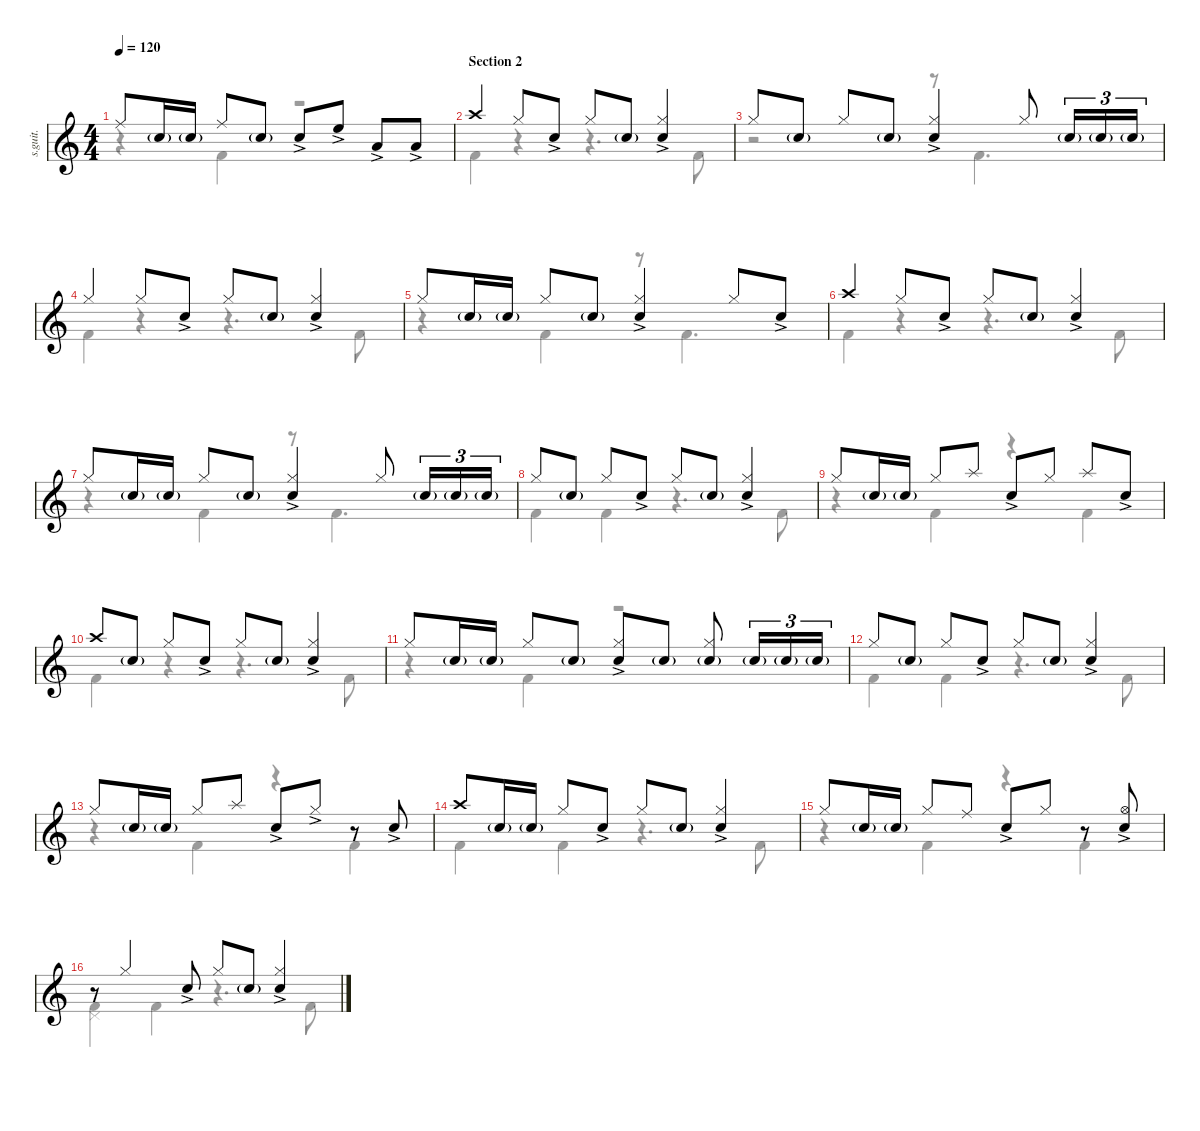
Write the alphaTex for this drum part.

\defaultSystemsLayout 4
\hideDynamics
\bracketExtendMode nobrackets
\track ("Matt Halpern" "s.guit.") {instrument percussion}
\staff {score}
\articulation defaults
\voice
\ts (4 4)
\tempo 120
\clef g2
\ks c "Ride (middle)".8{lyrics (0 "") lyrics (1 "") lyrics (2 "") lyrics (3 "") lyrics (4 "") dy mf} "Snare (hit) 2"{g}.16{lyrics (0 "") lyrics (1 "") lyrics (2 "") lyrics (3 "") lyrics (4 "")} "Snare (hit) 2"{g}.16{lyrics (0 "") lyrics (1 "") lyrics (2 "") lyrics (3 "") lyrics (4 "")} "Ride (middle)".8{lyrics (0 "") lyrics (1 "") lyrics (2 "") lyrics (3 "") lyrics (4 "")} "Snare (hit) 2"{g}.8{lyrics (0 "") lyrics (1 "") lyrics (2 "") lyrics (3 "") lyrics (4 "")} "Snare (hit) 2"{ac}.8{lyrics (0 "") lyrics (1 "") lyrics (2 "") lyrics (3 "") lyrics (4 "")} "High Floor Tom (hit)"{ac}.8{lyrics (0 "") lyrics (1 "") lyrics (2 "") lyrics (3 "") lyrics (4 "")} "Low Tom (hit)"{ac}.8{lyrics (0 "") lyrics (1 "") lyrics (2 "") lyrics (3 "") lyrics (4 "")} "Low Tom (hit)"{ac}.8{lyrics (0 "") lyrics (1 "") lyrics (2 "") lyrics (3 "") lyrics (4 "")}
|
\section ("" "Section 2")
"Crash high (hit)".4{lyrics (0 "") lyrics (1 "") lyrics (2 "") lyrics (3 "") lyrics (4 "")} "Hi-Hat (closed)".8{lyrics (0 "") lyrics (1 "") lyrics (2 "") lyrics (3 "") lyrics (4 "")} "Snare (hit) 2"{ac}.8{lyrics (0 "") lyrics (1 "") lyrics (2 "") lyrics (3 "") lyrics (4 "")} "Hi-Hat (closed)".8{lyrics (0 "") lyrics (1 "") lyrics (2 "") lyrics (3 "") lyrics (4 "")} "Snare (hit) 2"{g}.8{lyrics (0 "") lyrics (1 "") lyrics (2 "") lyrics (3 "") lyrics (4 "")} ("Snare (hit) 2"{ac} "Hi-Hat (closed)").4{lyrics (0 "") lyrics (1 "") lyrics (2 "") lyrics (3 "") lyrics (4 "")} |
"Hi-Hat (closed)".8{lyrics (0 "") lyrics (1 "") lyrics (2 "") lyrics (3 "") lyrics (4 "")} "Snare (hit) 2"{g}.8{lyrics (0 "") lyrics (1 "") lyrics (2 "") lyrics (3 "") lyrics (4 "")} "Hi-Hat (closed)".8{lyrics (0 "") lyrics (1 "") lyrics (2 "") lyrics (3 "") lyrics (4 "")} "Snare (hit) 2"{g}.8{lyrics (0 "") lyrics (1 "") lyrics (2 "") lyrics (3 "") lyrics (4 "")} ("Snare (hit) 2"{ac} "Hi-Hat (closed)").4{lyrics (0 "") lyrics (1 "") lyrics (2 "") lyrics (3 "") lyrics (4 "")} "Hi-Hat (closed)".8{lyrics (0 "") lyrics (1 "") lyrics (2 "") lyrics (3 "") lyrics (4 "")} "Snare (hit) 2"{g}.16{tu (3 2) lyrics (0 "") lyrics (1 "") lyrics (2 "") lyrics (3 "") lyrics (4 "")} "Snare (hit) 2"{g}.16{tu (3 2) lyrics (0 "") lyrics (1 "") lyrics (2 "") lyrics (3 "") lyrics (4 "")} "Snare (hit) 2"{g}.16{tu (3 2) lyrics (0 "") lyrics (1 "") lyrics (2 "") lyrics (3 "") lyrics (4 "")} |
"Hi-Hat (closed)".4{lyrics (0 "") lyrics (1 "") lyrics (2 "") lyrics (3 "") lyrics (4 "")} "Hi-Hat (closed)".8{lyrics (0 "") lyrics (1 "") lyrics (2 "") lyrics (3 "") lyrics (4 "")} "Snare (hit) 2"{ac}.8{lyrics (0 "") lyrics (1 "") lyrics (2 "") lyrics (3 "") lyrics (4 "")} "Hi-Hat (closed)".8{lyrics (0 "") lyrics (1 "") lyrics (2 "") lyrics (3 "") lyrics (4 "")} "Snare (hit) 2"{g}.8{lyrics (0 "") lyrics (1 "") lyrics (2 "") lyrics (3 "") lyrics (4 "")} ("Snare (hit) 2"{ac} "Hi-Hat (closed)").4{lyrics (0 "") lyrics (1 "") lyrics (2 "") lyrics (3 "") lyrics (4 "")} |
"Hi-Hat (closed)".8{lyrics (0 "") lyrics (1 "") lyrics (2 "") lyrics (3 "") lyrics (4 "")} "Snare (hit) 2"{g}.16{lyrics (0 "") lyrics (1 "") lyrics (2 "") lyrics (3 "") lyrics (4 "")} "Snare (hit) 2"{g}.16{lyrics (0 "") lyrics (1 "") lyrics (2 "") lyrics (3 "") lyrics (4 "")} "Hi-Hat (closed)".8{lyrics (0 "") lyrics (1 "") lyrics (2 "") lyrics (3 "") lyrics (4 "")} "Snare (hit) 2"{g}.8{lyrics (0 "") lyrics (1 "") lyrics (2 "") lyrics (3 "") lyrics (4 "")} ("Snare (hit) 2"{ac} "Hi-Hat (closed)").4{lyrics (0 "") lyrics (1 "") lyrics (2 "") lyrics (3 "") lyrics (4 "")} "Hi-Hat (closed)".8{lyrics (0 "") lyrics (1 "") lyrics (2 "") lyrics (3 "") lyrics (4 "")} "Snare (hit) 2"{ac}.8{lyrics (0 "") lyrics (1 "") lyrics (2 "") lyrics (3 "") lyrics (4 "")} |
"Crash high (hit)".4{lyrics (0 "") lyrics (1 "") lyrics (2 "") lyrics (3 "") lyrics (4 "")} "Hi-Hat (closed)".8{lyrics (0 "") lyrics (1 "") lyrics (2 "") lyrics (3 "") lyrics (4 "")} "Snare (hit) 2"{ac}.8{lyrics (0 "") lyrics (1 "") lyrics (2 "") lyrics (3 "") lyrics (4 "")} "Hi-Hat (closed)".8{lyrics (0 "") lyrics (1 "") lyrics (2 "") lyrics (3 "") lyrics (4 "")} "Snare (hit) 2"{g}.8{lyrics (0 "") lyrics (1 "") lyrics (2 "") lyrics (3 "") lyrics (4 "")} ("Snare (hit) 2"{ac} "Hi-Hat (closed)").4{lyrics (0 "") lyrics (1 "") lyrics (2 "") lyrics (3 "") lyrics (4 "")} |
"Hi-Hat (closed)".8{lyrics (0 "") lyrics (1 "") lyrics (2 "") lyrics (3 "") lyrics (4 "")} "Snare (hit) 2"{g}.16{lyrics (0 "") lyrics (1 "") lyrics (2 "") lyrics (3 "") lyrics (4 "")} "Snare (hit) 2"{g}.16{lyrics (0 "") lyrics (1 "") lyrics (2 "") lyrics (3 "") lyrics (4 "")} "Hi-Hat (closed)".8{lyrics (0 "") lyrics (1 "") lyrics (2 "") lyrics (3 "") lyrics (4 "")} "Snare (hit) 2"{g}.8{lyrics (0 "") lyrics (1 "") lyrics (2 "") lyrics (3 "") lyrics (4 "")} ("Snare (hit) 2"{ac} "Hi-Hat (closed)").4{lyrics (0 "") lyrics (1 "") lyrics (2 "") lyrics (3 "") lyrics (4 "")} "Hi-Hat (closed)".8{lyrics (0 "") lyrics (1 "") lyrics (2 "") lyrics (3 "") lyrics (4 "")} "Snare (hit) 2"{g}.16{tu (3 2) lyrics (0 "") lyrics (1 "") lyrics (2 "") lyrics (3 "") lyrics (4 "")} "Snare (hit) 2"{g}.16{tu (3 2) lyrics (0 "") lyrics (1 "") lyrics (2 "") lyrics (3 "") lyrics (4 "")} "Snare (hit) 2"{g}.16{tu (3 2) lyrics (0 "") lyrics (1 "") lyrics (2 "") lyrics (3 "") lyrics (4 "")} |
"Hi-Hat (closed)".8{lyrics (0 "") lyrics (1 "") lyrics (2 "") lyrics (3 "") lyrics (4 "")} "Snare (hit) 2"{g}.8{lyrics (0 "") lyrics (1 "") lyrics (2 "") lyrics (3 "") lyrics (4 "")} "Hi-Hat (closed)".8{lyrics (0 "") lyrics (1 "") lyrics (2 "") lyrics (3 "") lyrics (4 "")} "Snare (hit) 2"{ac}.8{lyrics (0 "") lyrics (1 "") lyrics (2 "") lyrics (3 "") lyrics (4 "")} "Hi-Hat (closed)".8{lyrics (0 "") lyrics (1 "") lyrics (2 "") lyrics (3 "") lyrics (4 "")} "Snare (hit) 2"{g}.8{lyrics (0 "") lyrics (1 "") lyrics (2 "") lyrics (3 "") lyrics (4 "")} ("Snare (hit) 2"{ac} "Hi-Hat (closed)").4{lyrics (0 "") lyrics (1 "") lyrics (2 "") lyrics (3 "") lyrics (4 "")} |
"Hi-Hat (closed)".8{lyrics (0 "") lyrics (1 "") lyrics (2 "") lyrics (3 "") lyrics (4 "")} "Snare (hit) 2"{g}.16{lyrics (0 "") lyrics (1 "") lyrics (2 "") lyrics (3 "") lyrics (4 "")} "Snare (hit) 2"{g}.16{lyrics (0 "") lyrics (1 "") lyrics (2 "") lyrics (3 "") lyrics (4 "")} "Hi-Hat (closed)".8{lyrics (0 "") lyrics (1 "") lyrics (2 "") lyrics (3 "") lyrics (4 "")} "Splash (hit)".8{lyrics (0 "") lyrics (1 "") lyrics (2 "") lyrics (3 "") lyrics (4 "")} "Snare (hit) 2"{ac}.8{lyrics (0 "") lyrics (1 "") lyrics (2 "") lyrics (3 "") lyrics (4 "")} "Hi-Hat (closed)".8{lyrics (0 "") lyrics (1 "") lyrics (2 "") lyrics (3 "") lyrics (4 "")} "Splash (hit)".8{lyrics (0 "") lyrics (1 "") lyrics (2 "") lyrics (3 "") lyrics (4 "")} "Snare (hit) 2"{ac}.8{lyrics (0 "") lyrics (1 "") lyrics (2 "") lyrics (3 "") lyrics (4 "")} |
"Crash high (hit)".8{lyrics (0 "") lyrics (1 "") lyrics (2 "") lyrics (3 "") lyrics (4 "")} "Snare (hit) 2"{g}.8{lyrics (0 "") lyrics (1 "") lyrics (2 "") lyrics (3 "") lyrics (4 "")} "Hi-Hat (closed)".8{lyrics (0 "") lyrics (1 "") lyrics (2 "") lyrics (3 "") lyrics (4 "")} "Snare (hit) 2"{ac}.8{lyrics (0 "") lyrics (1 "") lyrics (2 "") lyrics (3 "") lyrics (4 "")} "Hi-Hat (closed)".8{lyrics (0 "") lyrics (1 "") lyrics (2 "") lyrics (3 "") lyrics (4 "")} "Snare (hit) 2"{g}.8{lyrics (0 "") lyrics (1 "") lyrics (2 "") lyrics (3 "") lyrics (4 "")} ("Snare (hit) 2"{ac} "Hi-Hat (closed)").4{lyrics (0 "") lyrics (1 "") lyrics (2 "") lyrics (3 "") lyrics (4 "")} |
"Hi-Hat (closed)".8{lyrics (0 "") lyrics (1 "") lyrics (2 "") lyrics (3 "") lyrics (4 "")} "Snare (hit) 2"{g}.16{lyrics (0 "") lyrics (1 "") lyrics (2 "") lyrics (3 "") lyrics (4 "")} "Snare (hit) 2"{g}.16{lyrics (0 "") lyrics (1 "") lyrics (2 "") lyrics (3 "") lyrics (4 "")} "Hi-Hat (closed)".8{lyrics (0 "") lyrics (1 "") lyrics (2 "") lyrics (3 "") lyrics (4 "")} "Snare (hit) 2"{g}.8{lyrics (0 "") lyrics (1 "") lyrics (2 "") lyrics (3 "") lyrics (4 "")} ("Snare (hit) 2"{ac} "Hi-Hat (closed)").8{lyrics (0 "") lyrics (1 "") lyrics (2 "") lyrics (3 "") lyrics (4 "")} "Snare (hit) 2"{g}.8{lyrics (0 "") lyrics (1 "") lyrics (2 "") lyrics (3 "") lyrics (4 "")} ("Snare (hit) 2"{g} "Hi-Hat (closed)").8{lyrics (0 "") lyrics (1 "") lyrics (2 "") lyrics (3 "") lyrics (4 "")} "Snare (hit) 2"{g}.16{tu (3 2) lyrics (0 "") lyrics (1 "") lyrics (2 "") lyrics (3 "") lyrics (4 "")} "Snare (hit) 2"{g}.16{tu (3 2) lyrics (0 "") lyrics (1 "") lyrics (2 "") lyrics (3 "") lyrics (4 "")} "Snare (hit) 2"{g}.16{tu (3 2) lyrics (0 "") lyrics (1 "") lyrics (2 "") lyrics (3 "") lyrics (4 "")} |
"Hi-Hat (closed)".8{lyrics (0 "") lyrics (1 "") lyrics (2 "") lyrics (3 "") lyrics (4 "")} "Snare (hit) 2"{g}.8{lyrics (0 "") lyrics (1 "") lyrics (2 "") lyrics (3 "") lyrics (4 "")} "Hi-Hat (closed)".8{lyrics (0 "") lyrics (1 "") lyrics (2 "") lyrics (3 "") lyrics (4 "")} "Snare (hit) 2"{ac}.8{lyrics (0 "") lyrics (1 "") lyrics (2 "") lyrics (3 "") lyrics (4 "")} "Hi-Hat (closed)".8{lyrics (0 "") lyrics (1 "") lyrics (2 "") lyrics (3 "") lyrics (4 "")} "Snare (hit) 2"{g}.8{lyrics (0 "") lyrics (1 "") lyrics (2 "") lyrics (3 "") lyrics (4 "")} ("Snare (hit) 2"{ac} "Hi-Hat (closed)").4{lyrics (0 "") lyrics (1 "") lyrics (2 "") lyrics (3 "") lyrics (4 "")} |
"Hi-Hat (closed)".8{lyrics (0 "") lyrics (1 "") lyrics (2 "") lyrics (3 "") lyrics (4 "")} "Snare (hit) 2"{g}.16{lyrics (0 "") lyrics (1 "") lyrics (2 "") lyrics (3 "") lyrics (4 "")} "Snare (hit) 2"{g}.16{lyrics (0 "") lyrics (1 "") lyrics (2 "") lyrics (3 "") lyrics (4 "")} "Hi-Hat (closed)".8{lyrics (0 "") lyrics (1 "") lyrics (2 "") lyrics (3 "") lyrics (4 "")} "Splash (hit)".8{lyrics (0 "") lyrics (1 "") lyrics (2 "") lyrics (3 "") lyrics (4 "")} "Snare (hit) 2"{ac}.8{lyrics (0 "") lyrics (1 "") lyrics (2 "") lyrics (3 "") lyrics (4 "")} "Hi-Hat (closed)"{ac}.8{lyrics (0 "") lyrics (1 "") lyrics (2 "") lyrics (3 "") lyrics (4 "")} r.8 "Snare (hit) 2"{ac}.8{lyrics (0 "") lyrics (1 "") lyrics (2 "") lyrics (3 "") lyrics (4 "")} |
"Crash high (hit)".8{lyrics (0 "") lyrics (1 "") lyrics (2 "") lyrics (3 "") lyrics (4 "")} "Snare (hit) 2"{g}.16{lyrics (0 "") lyrics (1 "") lyrics (2 "") lyrics (3 "") lyrics (4 "")} "Snare (hit) 2"{g}.16{lyrics (0 "") lyrics (1 "") lyrics (2 "") lyrics (3 "") lyrics (4 "")} "Hi-Hat (closed)".8{lyrics (0 "") lyrics (1 "") lyrics (2 "") lyrics (3 "") lyrics (4 "")} "Snare (hit) 2"{ac}.8{lyrics (0 "") lyrics (1 "") lyrics (2 "") lyrics (3 "") lyrics (4 "")} "Hi-Hat (closed)".8{lyrics (0 "") lyrics (1 "") lyrics (2 "") lyrics (3 "") lyrics (4 "")} "Snare (hit) 2"{g}.8{lyrics (0 "") lyrics (1 "") lyrics (2 "") lyrics (3 "") lyrics (4 "")} ("Snare (hit) 2"{ac} "Hi-Hat (closed)").4{lyrics (0 "") lyrics (1 "") lyrics (2 "") lyrics (3 "") lyrics (4 "")} |
"Hi-Hat (closed)".8{lyrics (0 "") lyrics (1 "") lyrics (2 "") lyrics (3 "") lyrics (4 "")} "Snare (hit) 2"{g}.16{lyrics (0 "") lyrics (1 "") lyrics (2 "") lyrics (3 "") lyrics (4 "")} "Snare (hit) 2"{g}.16{lyrics (0 "") lyrics (1 "") lyrics (2 "") lyrics (3 "") lyrics (4 "")} "Hi-Hat (closed)".8{lyrics (0 "") lyrics (1 "") lyrics (2 "") lyrics (3 "") lyrics (4 "")} "Ride (middle)".8{lyrics (0 "") lyrics (1 "") lyrics (2 "") lyrics (3 "") lyrics (4 "")} "Snare (hit) 2"{ac}.8{lyrics (0 "") lyrics (1 "") lyrics (2 "") lyrics (3 "") lyrics (4 "")} "Hi-Hat (closed)".8{lyrics (0 "") lyrics (1 "") lyrics (2 "") lyrics (3 "") lyrics (4 "")} r.8 ("Snare (hit) 2"{ac} "Hi-Hat (open)").8{lyrics (0 "") lyrics (1 "") lyrics (2 "") lyrics (3 "") lyrics (4 "")} |
r.8 "Hi-Hat (closed)".4{lyrics (0 "") lyrics (1 "") lyrics (2 "") lyrics (3 "") lyrics (4 "")} "Snare (hit) 2"{ac}.8{lyrics (0 "") lyrics (1 "") lyrics (2 "") lyrics (3 "") lyrics (4 "")} "Hi-Hat (closed)".8{lyrics (0 "") lyrics (1 "") lyrics (2 "") lyrics (3 "") lyrics (4 "")} "Snare (hit) 2"{g}.8{lyrics (0 "") lyrics (1 "") lyrics (2 "") lyrics (3 "") lyrics (4 "")} ("Snare (hit) 2"{ac} "Hi-Hat (closed)").4{lyrics (0 "") lyrics (1 "") lyrics (2 "") lyrics (3 "") lyrics (4 "")}
\voice
\clef g2
\ottava regular
\simile none
\ks c
r.4{dy mf} "Kick (hit) 2".4{lyrics (0 "") lyrics (1 "") lyrics (2 "") lyrics (3 "") lyrics (4 "")} r.2 |
"Kick (hit) 2".4{lyrics (0 "") lyrics (1 "") lyrics (2 "") lyrics (3 "") lyrics (4 "")} r.4 r.4{d} "Kick (hit) 2".8{lyrics (0 "") lyrics (1 "") lyrics (2 "") lyrics (3 "") lyrics (4 "")} |
r.2 r.8 "Kick (hit) 2".4{d lyrics (0 "") lyrics (1 "") lyrics (2 "") lyrics (3 "") lyrics (4 "")} |
"Kick (hit) 2".4{lyrics (0 "") lyrics (1 "") lyrics (2 "") lyrics (3 "") lyrics (4 "")} r.4 r.4{d} "Kick (hit) 2".8{lyrics (0 "") lyrics (1 "") lyrics (2 "") lyrics (3 "") lyrics (4 "")} |
r.4 "Kick (hit) 2".4{lyrics (0 "") lyrics (1 "") lyrics (2 "") lyrics (3 "") lyrics (4 "")} r.8 "Kick (hit) 2".4{d lyrics (0 "") lyrics (1 "") lyrics (2 "") lyrics (3 "") lyrics (4 "")} |
"Kick (hit) 2".4{lyrics (0 "") lyrics (1 "") lyrics (2 "") lyrics (3 "") lyrics (4 "")} r.4 r.4{d} "Kick (hit) 2".8{lyrics (0 "") lyrics (1 "") lyrics (2 "") lyrics (3 "") lyrics (4 "")} |
r.4 "Kick (hit) 2".4{lyrics (0 "") lyrics (1 "") lyrics (2 "") lyrics (3 "") lyrics (4 "")} r.8 "Kick (hit) 2".4{d lyrics (0 "") lyrics (1 "") lyrics (2 "") lyrics (3 "") lyrics (4 "")} |
"Kick (hit) 2".4{lyrics (0 "") lyrics (1 "") lyrics (2 "") lyrics (3 "") lyrics (4 "")} "Kick (hit) 2".4{lyrics (0 "") lyrics (1 "") lyrics (2 "") lyrics (3 "") lyrics (4 "")} r.4{d} "Kick (hit) 2".8{lyrics (0 "") lyrics (1 "") lyrics (2 "") lyrics (3 "") lyrics (4 "")} |
r.4 "Kick (hit) 2".4{lyrics (0 "") lyrics (1 "") lyrics (2 "") lyrics (3 "") lyrics (4 "")} r.4 "Kick (hit) 2".4{lyrics (0 "") lyrics (1 "") lyrics (2 "") lyrics (3 "") lyrics (4 "")} |
"Kick (hit) 2".4{lyrics (0 "") lyrics (1 "") lyrics (2 "") lyrics (3 "") lyrics (4 "")} r.4 r.4{d} "Kick (hit) 2".8{lyrics (0 "") lyrics (1 "") lyrics (2 "") lyrics (3 "") lyrics (4 "")} |
r.4 "Kick (hit) 2".4{lyrics (0 "") lyrics (1 "") lyrics (2 "") lyrics (3 "") lyrics (4 "")} r.2 |
"Kick (hit) 2".4{lyrics (0 "") lyrics (1 "") lyrics (2 "") lyrics (3 "") lyrics (4 "")} "Kick (hit) 2".4{lyrics (0 "") lyrics (1 "") lyrics (2 "") lyrics (3 "") lyrics (4 "")} r.4{d} "Kick (hit) 2".8{lyrics (0 "") lyrics (1 "") lyrics (2 "") lyrics (3 "") lyrics (4 "")} |
r.4 "Kick (hit) 2".4{lyrics (0 "") lyrics (1 "") lyrics (2 "") lyrics (3 "") lyrics (4 "")} r.4 "Kick (hit) 2".4{lyrics (0 "") lyrics (1 "") lyrics (2 "") lyrics (3 "") lyrics (4 "")} |
"Kick (hit) 2".4{lyrics (0 "") lyrics (1 "") lyrics (2 "") lyrics (3 "") lyrics (4 "")} "Kick (hit) 2".4{lyrics (0 "") lyrics (1 "") lyrics (2 "") lyrics (3 "") lyrics (4 "")} r.4{d} "Kick (hit) 2".8{lyrics (0 "") lyrics (1 "") lyrics (2 "") lyrics (3 "") lyrics (4 "")} |
r.4 "Kick (hit) 2".4{lyrics (0 "") lyrics (1 "") lyrics (2 "") lyrics (3 "") lyrics (4 "")} r.4 "Kick (hit) 2".4{lyrics (0 "") lyrics (1 "") lyrics (2 "") lyrics (3 "") lyrics (4 "")} |
("Pedal Hi-Hat (hit)" "Kick (hit) 2").4{lyrics (0 "") lyrics (1 "") lyrics (2 "") lyrics (3 "") lyrics (4 "")} "Kick (hit) 2".4{lyrics (0 "") lyrics (1 "") lyrics (2 "") lyrics (3 "") lyrics (4 "")} r.4{d} "Kick (hit) 2".8{lyrics (0 "") lyrics (1 "") lyrics (2 "") lyrics (3 "") lyrics (4 "")}
